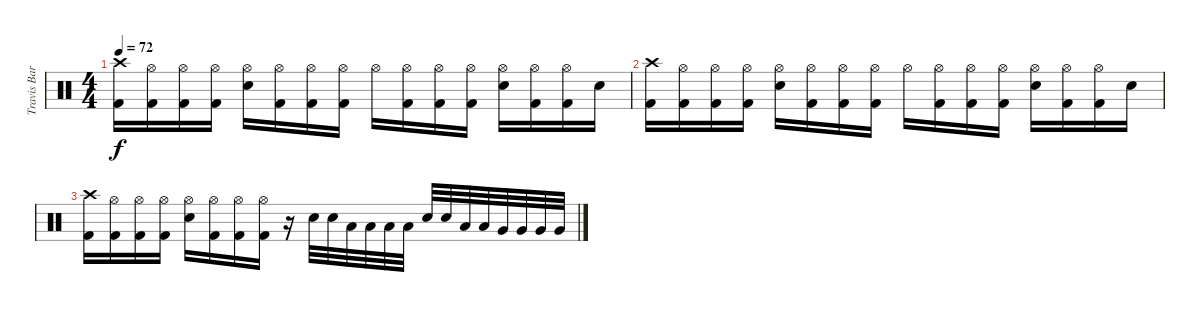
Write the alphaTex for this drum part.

\track ("Travis Barker" "Travis Bar") {instrument percussion}
\staff {score}
\articulation defaults
\ts (4 4)
\tempo 72
\clef neutral
\ks c
("Crash high (hit)" "Kick (hit) 2").16{dy f} ("Hi-Hat (open)" "Kick (hit) 2").16 ("Hi-Hat (open)" "Kick (hit) 2").16 ("Hi-Hat (open)" "Kick (hit) 2").16 ("Hi-Hat (open)" "Electric Snare (hit)").16 ("Hi-Hat (open)" "Kick (hit) 2").16 ("Hi-Hat (open)" "Kick (hit) 2").16 ("Hi-Hat (open)" "Kick (hit) 2").16 "Hi-Hat (open)".16 ("Hi-Hat (open)" "Kick (hit) 2").16 ("Hi-Hat (open)" "Kick (hit) 2").16 ("Hi-Hat (open)" "Kick (hit) 2").16 ("Hi-Hat (open)" "Electric Snare (hit)").16 ("Hi-Hat (open)" "Kick (hit) 2").16 ("Hi-Hat (open)" "Kick (hit) 2").16 "Electric Snare (hit)".16 |
("Crash high (hit)" "Kick (hit) 2").16 ("Hi-Hat (open)" "Kick (hit) 2").16 ("Hi-Hat (open)" "Kick (hit) 2").16 ("Hi-Hat (open)" "Kick (hit) 2").16 ("Hi-Hat (open)" "Electric Snare (hit)").16 ("Hi-Hat (open)" "Kick (hit) 2").16 ("Hi-Hat (open)" "Kick (hit) 2").16 ("Hi-Hat (open)" "Kick (hit) 2").16 "Hi-Hat (open)".16 ("Hi-Hat (open)" "Kick (hit) 2").16 ("Hi-Hat (open)" "Kick (hit) 2").16 ("Hi-Hat (open)" "Kick (hit) 2").16 ("Hi-Hat (open)" "Electric Snare (hit)").16 ("Hi-Hat (open)" "Kick (hit) 2").16 ("Hi-Hat (open)" "Kick (hit) 2").16 "Electric Snare (hit)".16 |
("Crash high (hit)" "Kick (hit) 2").16 ("Hi-Hat (open)" "Kick (hit) 2").16 ("Hi-Hat (open)" "Kick (hit) 2").16 ("Hi-Hat (open)" "Kick (hit) 2").16 ("Hi-Hat (open)" "Electric Snare (hit)").16 ("Hi-Hat (open)" "Kick (hit) 2").16 ("Hi-Hat (open)" "Kick (hit) 2").16 ("Hi-Hat (open)" "Kick (hit) 2").16 r.16 "Electric Snare (hit)".32 "Electric Snare (hit)".32 "Low Tom (hit)".32 "Low Tom (hit)".32 "Low Tom (hit)".32 "Low Tom (hit)".32 "Electric Snare (hit)".32 "Electric Snare (hit)".32 "Low Tom (hit)".32 "Low Tom (hit)".32 "Very Low Tom (hit)".32 "Very Low Tom (hit)".32 "Very Low Tom (hit)".32 "Very Low Tom (hit)".32
